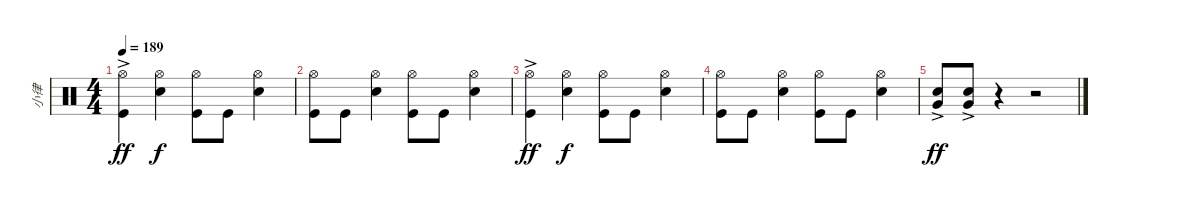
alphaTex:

\track ("小律" "小律") {instrument percussion}
\staff {score}
\articulation defaults
\ts (4 4)
\tempo 189
\clef neutral
\ks c
("Hi-Hat (open)" "Kick (hit)"{ac}).4{dy ff} ("Hi-Hat (open)" "Snare (hit) 2").4{dy f} ("Hi-Hat (open)" "Kick (hit)").8 "Kick (hit)".8 ("Hi-Hat (open)" "Snare (hit) 2").4 |
("Hi-Hat (open)" "Kick (hit)").8 "Kick (hit)".8 ("Hi-Hat (open)" "Snare (hit) 2").4 ("Hi-Hat (open)" "Kick (hit)").8 "Kick (hit)".8 ("Hi-Hat (open)" "Snare (hit) 2").4 |
("Hi-Hat (open)" "Kick (hit)"{ac}).4{dy ff} ("Hi-Hat (open)" "Snare (hit) 2").4{dy f} ("Hi-Hat (open)" "Kick (hit)").8 "Kick (hit)".8 ("Hi-Hat (open)" "Snare (hit) 2").4 |
("Hi-Hat (open)" "Kick (hit)").8 "Kick (hit)".8 ("Hi-Hat (open)" "Snare (hit) 2").4 ("Hi-Hat (open)" "Kick (hit)").8 "Kick (hit)".8 ("Hi-Hat (open)" "Snare (hit) 2").4 |
("Snare (hit) 2"{ac} "Very Low Tom (hit)").8{dy ff beam Up} ("Snare (hit) 2"{ac} "Very Low Tom (hit)").8{beam Up} r.4 r.2
